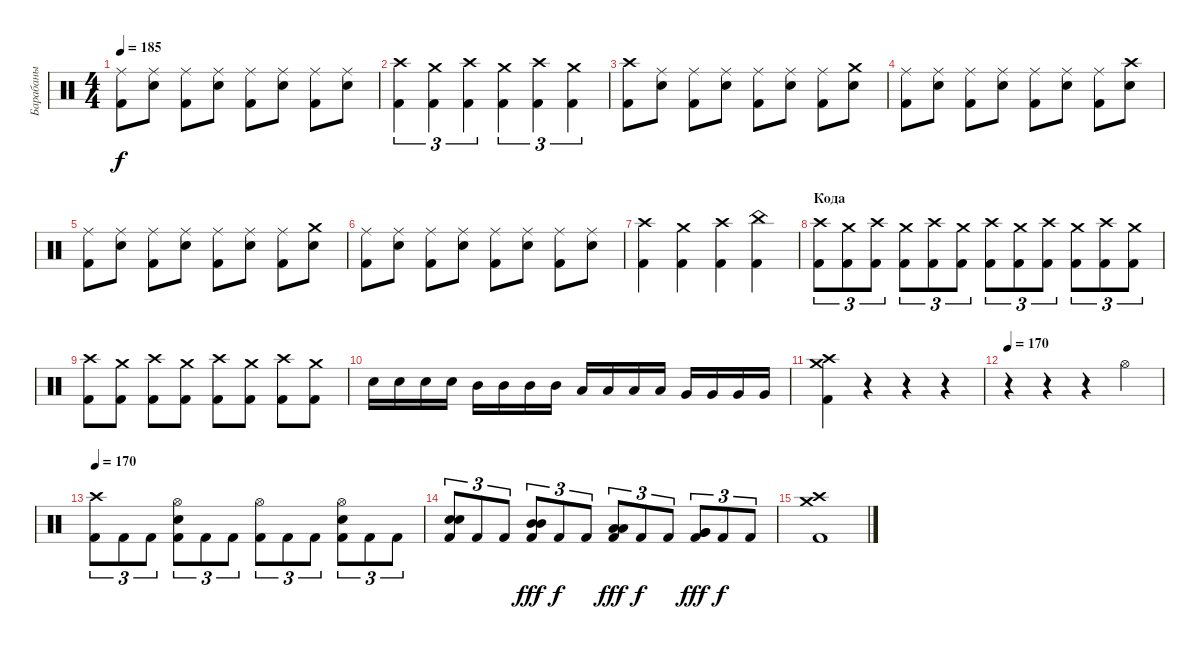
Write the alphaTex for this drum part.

\track ("Барабаны" "Барабаны") {instrument percussion}
\staff {score}
\articulation defaults
\ts (4 4)
\tempo 185
\clef neutral
\ks c
("Ride (middle)" "Kick (hit) 2").8{dy f} ("Ride (middle)" "Snare (hit) 2").8 ("Ride (middle)" "Kick (hit) 2").8 ("Ride (middle)" "Snare (hit) 2").8 ("Ride (middle)" "Kick (hit) 2").8 ("Ride (middle)" "Snare (hit) 2").8 ("Ride (middle)" "Kick (hit) 2").8 ("Ride (middle)" "Snare (hit) 2").8 |
("Crash high (hit)" "Kick (hit) 2").4{tu (3 2)} ("Crash medium (hit)" "Kick (hit) 2").4{tu (3 2)} ("Crash high (hit)" "Kick (hit) 2").4{tu (3 2)} ("Crash medium (hit)" "Kick (hit) 2").4{tu (3 2)} ("Crash high (hit)" "Kick (hit) 2").4{tu (3 2)} ("Crash medium (hit)" "Kick (hit) 2").4{tu (3 2)} |
("Crash high (hit)" "Kick (hit) 2").8 ("Ride (middle)" "Snare (hit) 2").8 ("Ride (middle)" "Kick (hit) 2").8 ("Ride (middle)" "Snare (hit) 2").8 ("Ride (middle)" "Kick (hit) 2").8 ("Ride (middle)" "Snare (hit) 2").8 ("Ride (middle)" "Kick (hit) 2").8 ("Crash medium (hit)" "Snare (hit) 2").8 |
("Ride (middle)" "Kick (hit) 2").8 ("Ride (middle)" "Snare (hit) 2").8 ("Ride (middle)" "Kick (hit) 2").8 ("Ride (middle)" "Snare (hit) 2").8 ("Ride (middle)" "Kick (hit) 2").8 ("Ride (middle)" "Snare (hit) 2").8 ("Ride (middle)" "Kick (hit) 2").8 ("Crash high (hit)" "Snare (hit) 2").8 |
("Ride (middle)" "Kick (hit) 2").8 ("Ride (middle)" "Snare (hit) 2").8 ("Ride (middle)" "Kick (hit) 2").8 ("Ride (middle)" "Snare (hit) 2").8 ("Ride (middle)" "Kick (hit) 2").8 ("Ride (middle)" "Snare (hit) 2").8 ("Ride (middle)" "Kick (hit) 2").8 ("Crash medium (hit)" "Snare (hit) 2").8 |
("Ride (middle)" "Kick (hit) 2").8 ("Ride (middle)" "Snare (hit) 2").8 ("Ride (middle)" "Kick (hit) 2").8 ("Ride (middle)" "Snare (hit) 2").8 ("Ride (middle)" "Kick (hit) 2").8 ("Ride (middle)" "Snare (hit) 2").8 ("Ride (middle)" "Kick (hit) 2").8 ("Ride (middle)" "Snare (hit) 2").8 |
("Crash high (hit)" "Kick (hit) 2").4 ("Crash medium (hit)" "Kick (hit) 2").4 ("Crash high (hit)" "Kick (hit) 2").4 ("China (hit)" "Kick (hit) 2").4 |
\section ("" "Кода")
("Crash high (hit)" "Kick (hit) 2").8{tu (3 2)} ("Crash medium (hit)" "Kick (hit) 2").8{tu (3 2)} ("Crash high (hit)" "Kick (hit) 2").8{tu (3 2)} ("Crash medium (hit)" "Kick (hit) 2").8{tu (3 2)} ("Crash high (hit)" "Kick (hit) 2").8{tu (3 2)} ("Crash medium (hit)" "Kick (hit) 2").8{tu (3 2)} ("Crash high (hit)" "Kick (hit) 2").8{tu (3 2)} ("Crash medium (hit)" "Kick (hit) 2").8{tu (3 2)} ("Crash high (hit)" "Kick (hit) 2").8{tu (3 2)} ("Crash medium (hit)" "Kick (hit) 2").8{tu (3 2)} ("Crash high (hit)" "Kick (hit) 2").8{tu (3 2)} ("Crash medium (hit)" "Kick (hit) 2").8{tu (3 2)} |
("Crash high (hit)" "Kick (hit) 2").8 ("Crash medium (hit)" "Kick (hit) 2").8 ("Crash high (hit)" "Kick (hit) 2").8 ("Crash medium (hit)" "Kick (hit) 2").8 ("Crash high (hit)" "Kick (hit) 2").8 ("Crash medium (hit)" "Kick (hit) 2").8 ("Crash high (hit)" "Kick (hit) 2").8 ("Crash medium (hit)" "Kick (hit) 2").8 |
"Snare (hit) 2".16 "Snare (hit) 2".16 "Snare (hit) 2".16 "Snare (hit) 2".16 "Mid Tom (hit)".16 "Mid Tom (hit)".16 "Mid Tom (hit)".16 "Mid Tom (hit)".16 "Low Tom (hit)".16 "Low Tom (hit)".16 "Low Tom (hit)".16 "Low Tom (hit)".16 "Very Low Tom (hit)".16 "Very Low Tom (hit)".16 "Very Low Tom (hit)".16 "Very Low Tom (hit)".16 |
("Crash high (hit)" "Crash medium (hit)" "Kick (hit) 2").4 r.4 r.4 r.4 |
\tempo 170
r.4 r.4 r.4 "Hi-Hat (open)".4 |
\tempo 170
("Crash high (hit)" "Kick (hit) 2").8{tu (3 2)} "Kick (hit) 2".8{tu (3 2)} "Kick (hit) 2".8{tu (3 2)} ("Hi-Hat (open)" "Snare (hit) 2" "Kick (hit) 2").8{tu (3 2)} "Kick (hit) 2".8{tu (3 2)} "Kick (hit) 2".8{tu (3 2)} ("Hi-Hat (open)" "Kick (hit) 2").8{tu (3 2)} "Kick (hit) 2".8{tu (3 2)} "Kick (hit) 2".8{tu (3 2)} ("Hi-Hat (open)" "Snare (hit) 2" "Kick (hit) 2").8{tu (3 2)} "Kick (hit) 2".8{tu (3 2)} "Kick (hit) 2".8{tu (3 2)} |
("Snare (hit) 2" "Snare (hit) 2" "Kick (hit) 2").8{tu (3 2)} "Kick (hit) 2".8{tu (3 2)} "Kick (hit) 2".8{tu (3 2)} ("Mid Tom (hit)" "Mid Tom (hit)" "Kick (hit) 2").8{tu (3 2) dy fff} "Kick (hit) 2".8{tu (3 2) dy f} "Kick (hit) 2".8{tu (3 2)} ("Low Tom (hit)" "Low Tom (hit)" "Kick (hit) 2").8{tu (3 2) dy fff} "Kick (hit) 2".8{tu (3 2) dy f} "Kick (hit) 2".8{tu (3 2)} ("Very Low Tom (hit)" "Very Low Tom (hit)" "Kick (hit) 2").8{tu (3 2) dy fff} "Kick (hit) 2".8{tu (3 2) dy f} "Kick (hit) 2".8{tu (3 2)} |
("Crash high (hit)" "Crash medium (hit)" "Kick (hit) 2").1
